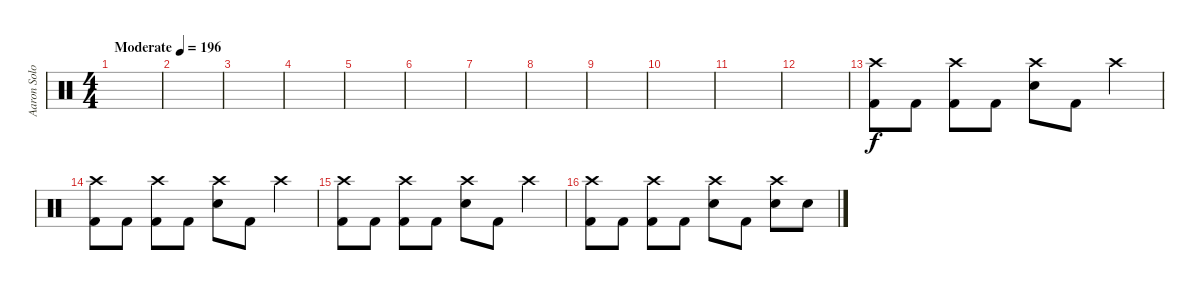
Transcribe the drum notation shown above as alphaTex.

\track ("Aaron Solowoniuk" "Aaron Solo") {instrument percussion}
\staff {score}
\articulation defaults
\ts (4 4)
\tempo (196 "Moderate")
\clef neutral
\ks c
|
|
|
|
|
|
|
|
|
|
|
|
("Crash high (hit)" "Kick (hit) 2").8 "Kick (hit) 2".8 ("Crash high (hit)" "Kick (hit) 2").8 "Kick (hit) 2".8 ("Crash high (hit)" "Electric Snare (hit)").8 "Kick (hit) 2".8 "Crash high (hit)".4 |
("Crash high (hit)" "Kick (hit) 2").8 "Kick (hit) 2".8 ("Crash high (hit)" "Kick (hit) 2").8 "Kick (hit) 2".8 ("Crash high (hit)" "Electric Snare (hit)").8 "Kick (hit) 2".8 "Crash high (hit)".4 |
("Crash high (hit)" "Kick (hit) 2").8 "Kick (hit) 2".8 ("Crash high (hit)" "Kick (hit) 2").8 "Kick (hit) 2".8 ("Crash high (hit)" "Electric Snare (hit)").8 "Kick (hit) 2".8 "Crash high (hit)".4 |
("Crash high (hit)" "Kick (hit) 2").8 "Kick (hit) 2".8 ("Crash high (hit)" "Kick (hit) 2").8 "Kick (hit) 2".8 ("Crash high (hit)" "Electric Snare (hit)").8 "Kick (hit) 2".8 ("Crash high (hit)" "Electric Snare (hit)").8 "Electric Snare (hit)".8
